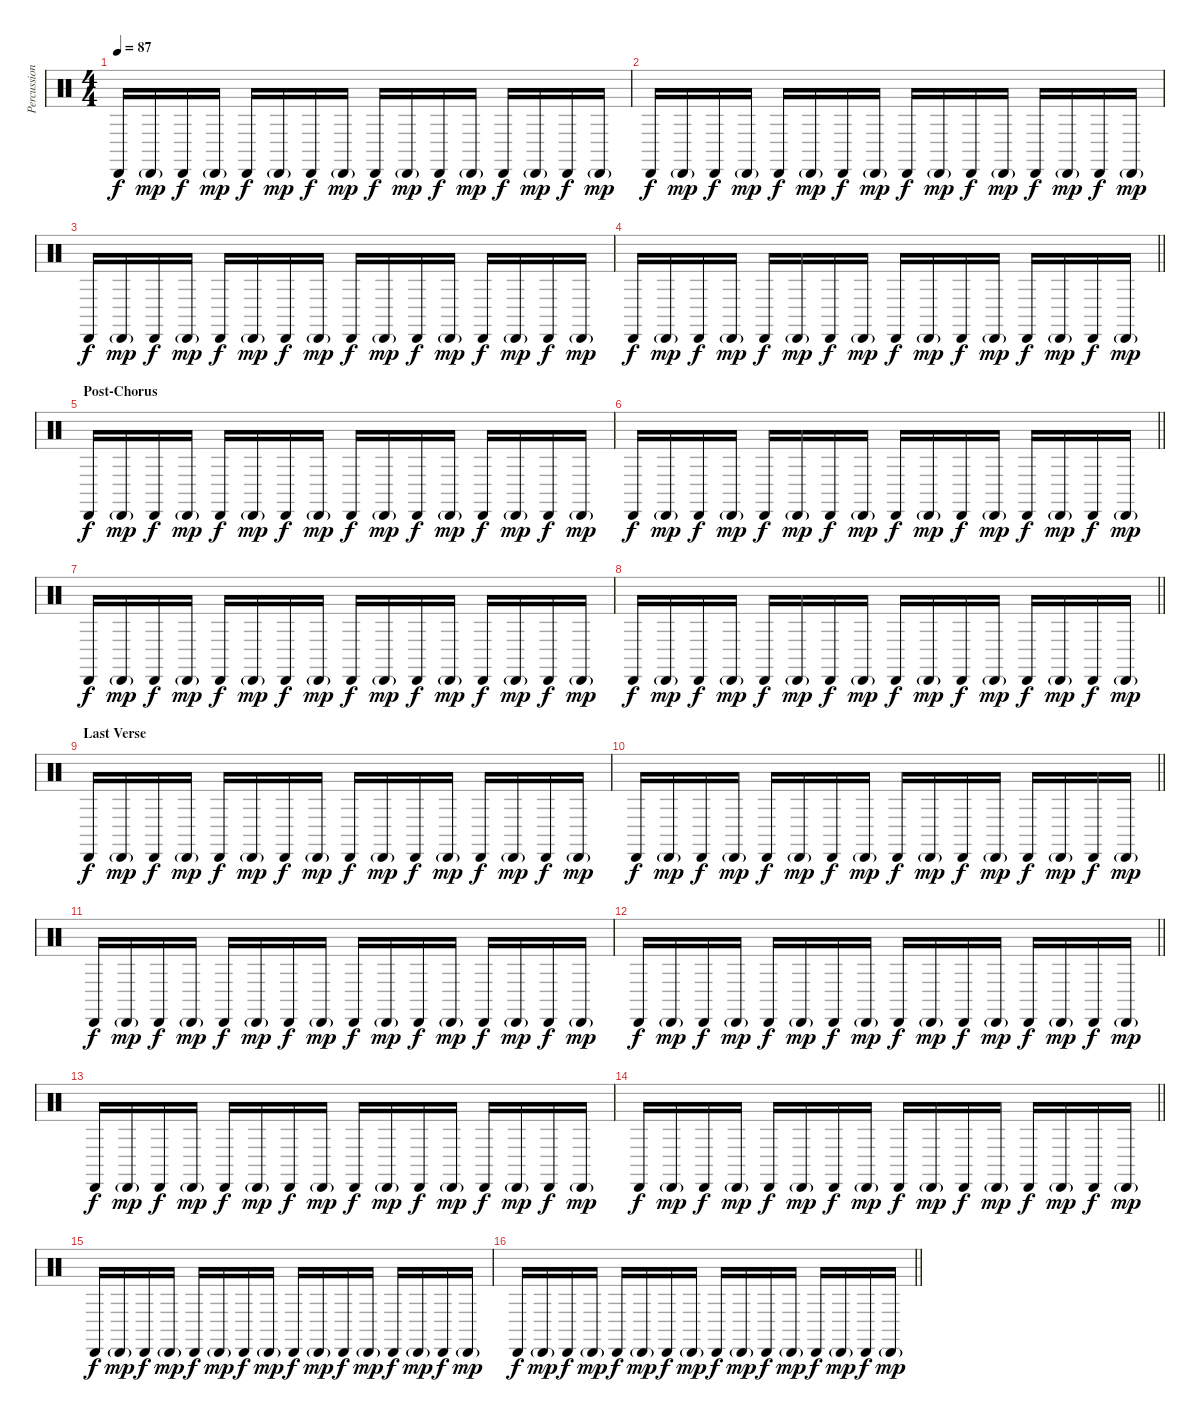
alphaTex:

\track ("Percussion" "Percussion") {instrument percussion}
\staff {score}
\articulation defaults
\ts (4 4)
\tempo 87
\clef neutral
\ks c "Cabasa (hit)".16{dy f} "Cabasa (hit)"{g}.16{dy mp} "Cabasa (hit)".16{dy f} "Cabasa (hit)"{g}.16{dy mp} "Cabasa (hit)".16{dy f} "Cabasa (hit)"{g}.16{dy mp} "Cabasa (hit)".16{dy f} "Cabasa (hit)"{g}.16{dy mp} "Cabasa (hit)".16{dy f} "Cabasa (hit)"{g}.16{dy mp} "Cabasa (hit)".16{dy f} "Cabasa (hit)"{g}.16{dy mp} "Cabasa (hit)".16{dy f} "Cabasa (hit)"{g}.16{dy mp} "Cabasa (hit)".16{dy f} "Cabasa (hit)"{g}.16{dy mp}
|
"Cabasa (hit)".16{dy f} "Cabasa (hit)"{g}.16{dy mp} "Cabasa (hit)".16{dy f} "Cabasa (hit)"{g}.16{dy mp} "Cabasa (hit)".16{dy f} "Cabasa (hit)"{g}.16{dy mp} "Cabasa (hit)".16{dy f} "Cabasa (hit)"{g}.16{dy mp} "Cabasa (hit)".16{dy f} "Cabasa (hit)"{g}.16{dy mp} "Cabasa (hit)".16{dy f} "Cabasa (hit)"{g}.16{dy mp} "Cabasa (hit)".16{dy f} "Cabasa (hit)"{g}.16{dy mp} "Cabasa (hit)".16{dy f} "Cabasa (hit)"{g}.16{dy mp} |
"Cabasa (hit)".16{dy f} "Cabasa (hit)"{g}.16{dy mp} "Cabasa (hit)".16{dy f} "Cabasa (hit)"{g}.16{dy mp} "Cabasa (hit)".16{dy f} "Cabasa (hit)"{g}.16{dy mp} "Cabasa (hit)".16{dy f} "Cabasa (hit)"{g}.16{dy mp} "Cabasa (hit)".16{dy f} "Cabasa (hit)"{g}.16{dy mp} "Cabasa (hit)".16{dy f} "Cabasa (hit)"{g}.16{dy mp} "Cabasa (hit)".16{dy f} "Cabasa (hit)"{g}.16{dy mp} "Cabasa (hit)".16{dy f} "Cabasa (hit)"{g}.16{dy mp} |
\barLineRight lightlight "Cabasa (hit)".16{dy f} "Cabasa (hit)"{g}.16{dy mp} "Cabasa (hit)".16{dy f} "Cabasa (hit)"{g}.16{dy mp} "Cabasa (hit)".16{dy f} "Cabasa (hit)"{g}.16{dy mp} "Cabasa (hit)".16{dy f} "Cabasa (hit)"{g}.16{dy mp} "Cabasa (hit)".16{dy f} "Cabasa (hit)"{g}.16{dy mp} "Cabasa (hit)".16{dy f} "Cabasa (hit)"{g}.16{dy mp} "Cabasa (hit)".16{dy f} "Cabasa (hit)"{g}.16{dy mp} "Cabasa (hit)".16{dy f} "Cabasa (hit)"{g}.16{dy mp}
|
\section ("" "Post-Chorus")
"Cabasa (hit)".16{dy f} "Cabasa (hit)"{g}.16{dy mp} "Cabasa (hit)".16{dy f} "Cabasa (hit)"{g}.16{dy mp} "Cabasa (hit)".16{dy f} "Cabasa (hit)"{g}.16{dy mp} "Cabasa (hit)".16{dy f} "Cabasa (hit)"{g}.16{dy mp} "Cabasa (hit)".16{dy f} "Cabasa (hit)"{g}.16{dy mp} "Cabasa (hit)".16{dy f} "Cabasa (hit)"{g}.16{dy mp} "Cabasa (hit)".16{dy f} "Cabasa (hit)"{g}.16{dy mp} "Cabasa (hit)".16{dy f} "Cabasa (hit)"{g}.16{dy mp} |
\barLineRight lightlight "Cabasa (hit)".16{dy f} "Cabasa (hit)"{g}.16{dy mp} "Cabasa (hit)".16{dy f} "Cabasa (hit)"{g}.16{dy mp} "Cabasa (hit)".16{dy f} "Cabasa (hit)"{g}.16{dy mp} "Cabasa (hit)".16{dy f} "Cabasa (hit)"{g}.16{dy mp} "Cabasa (hit)".16{dy f} "Cabasa (hit)"{g}.16{dy mp} "Cabasa (hit)".16{dy f} "Cabasa (hit)"{g}.16{dy mp} "Cabasa (hit)".16{dy f} "Cabasa (hit)"{g}.16{dy mp} "Cabasa (hit)".16{dy f} "Cabasa (hit)"{g}.16{dy mp}
|
"Cabasa (hit)".16{dy f} "Cabasa (hit)"{g}.16{dy mp} "Cabasa (hit)".16{dy f} "Cabasa (hit)"{g}.16{dy mp} "Cabasa (hit)".16{dy f} "Cabasa (hit)"{g}.16{dy mp} "Cabasa (hit)".16{dy f} "Cabasa (hit)"{g}.16{dy mp} "Cabasa (hit)".16{dy f} "Cabasa (hit)"{g}.16{dy mp} "Cabasa (hit)".16{dy f} "Cabasa (hit)"{g}.16{dy mp} "Cabasa (hit)".16{dy f} "Cabasa (hit)"{g}.16{dy mp} "Cabasa (hit)".16{dy f} "Cabasa (hit)"{g}.16{dy mp} |
\barLineRight lightlight "Cabasa (hit)".16{dy f} "Cabasa (hit)"{g}.16{dy mp} "Cabasa (hit)".16{dy f} "Cabasa (hit)"{g}.16{dy mp} "Cabasa (hit)".16{dy f} "Cabasa (hit)"{g}.16{dy mp} "Cabasa (hit)".16{dy f} "Cabasa (hit)"{g}.16{dy mp} "Cabasa (hit)".16{dy f} "Cabasa (hit)"{g}.16{dy mp} "Cabasa (hit)".16{dy f} "Cabasa (hit)"{g}.16{dy mp} "Cabasa (hit)".16{dy f} "Cabasa (hit)"{g}.16{dy mp} "Cabasa (hit)".16{dy f} "Cabasa (hit)"{g}.16{dy mp}
|
\section ("" "Last Verse")
"Cabasa (hit)".16{dy f} "Cabasa (hit)"{g}.16{dy mp} "Cabasa (hit)".16{dy f} "Cabasa (hit)"{g}.16{dy mp} "Cabasa (hit)".16{dy f} "Cabasa (hit)"{g}.16{dy mp} "Cabasa (hit)".16{dy f} "Cabasa (hit)"{g}.16{dy mp} "Cabasa (hit)".16{dy f} "Cabasa (hit)"{g}.16{dy mp} "Cabasa (hit)".16{dy f} "Cabasa (hit)"{g}.16{dy mp} "Cabasa (hit)".16{dy f} "Cabasa (hit)"{g}.16{dy mp} "Cabasa (hit)".16{dy f} "Cabasa (hit)"{g}.16{dy mp} |
\barLineRight lightlight "Cabasa (hit)".16{dy f} "Cabasa (hit)"{g}.16{dy mp} "Cabasa (hit)".16{dy f} "Cabasa (hit)"{g}.16{dy mp} "Cabasa (hit)".16{dy f} "Cabasa (hit)"{g}.16{dy mp} "Cabasa (hit)".16{dy f} "Cabasa (hit)"{g}.16{dy mp} "Cabasa (hit)".16{dy f} "Cabasa (hit)"{g}.16{dy mp} "Cabasa (hit)".16{dy f} "Cabasa (hit)"{g}.16{dy mp} "Cabasa (hit)".16{dy f} "Cabasa (hit)"{g}.16{dy mp} "Cabasa (hit)".16{dy f} "Cabasa (hit)"{g}.16{dy mp}
|
"Cabasa (hit)".16{dy f} "Cabasa (hit)"{g}.16{dy mp} "Cabasa (hit)".16{dy f} "Cabasa (hit)"{g}.16{dy mp} "Cabasa (hit)".16{dy f} "Cabasa (hit)"{g}.16{dy mp} "Cabasa (hit)".16{dy f} "Cabasa (hit)"{g}.16{dy mp} "Cabasa (hit)".16{dy f} "Cabasa (hit)"{g}.16{dy mp} "Cabasa (hit)".16{dy f} "Cabasa (hit)"{g}.16{dy mp} "Cabasa (hit)".16{dy f} "Cabasa (hit)"{g}.16{dy mp} "Cabasa (hit)".16{dy f} "Cabasa (hit)"{g}.16{dy mp} |
\barLineRight lightlight "Cabasa (hit)".16{dy f} "Cabasa (hit)"{g}.16{dy mp} "Cabasa (hit)".16{dy f} "Cabasa (hit)"{g}.16{dy mp} "Cabasa (hit)".16{dy f} "Cabasa (hit)"{g}.16{dy mp} "Cabasa (hit)".16{dy f} "Cabasa (hit)"{g}.16{dy mp} "Cabasa (hit)".16{dy f} "Cabasa (hit)"{g}.16{dy mp} "Cabasa (hit)".16{dy f} "Cabasa (hit)"{g}.16{dy mp} "Cabasa (hit)".16{dy f} "Cabasa (hit)"{g}.16{dy mp} "Cabasa (hit)".16{dy f} "Cabasa (hit)"{g}.16{dy mp}
|
"Cabasa (hit)".16{dy f} "Cabasa (hit)"{g}.16{dy mp} "Cabasa (hit)".16{dy f} "Cabasa (hit)"{g}.16{dy mp} "Cabasa (hit)".16{dy f} "Cabasa (hit)"{g}.16{dy mp} "Cabasa (hit)".16{dy f} "Cabasa (hit)"{g}.16{dy mp} "Cabasa (hit)".16{dy f} "Cabasa (hit)"{g}.16{dy mp} "Cabasa (hit)".16{dy f} "Cabasa (hit)"{g}.16{dy mp} "Cabasa (hit)".16{dy f} "Cabasa (hit)"{g}.16{dy mp} "Cabasa (hit)".16{dy f} "Cabasa (hit)"{g}.16{dy mp} |
\barLineRight lightlight "Cabasa (hit)".16{dy f} "Cabasa (hit)"{g}.16{dy mp} "Cabasa (hit)".16{dy f} "Cabasa (hit)"{g}.16{dy mp} "Cabasa (hit)".16{dy f} "Cabasa (hit)"{g}.16{dy mp} "Cabasa (hit)".16{dy f} "Cabasa (hit)"{g}.16{dy mp} "Cabasa (hit)".16{dy f} "Cabasa (hit)"{g}.16{dy mp} "Cabasa (hit)".16{dy f} "Cabasa (hit)"{g}.16{dy mp} "Cabasa (hit)".16{dy f} "Cabasa (hit)"{g}.16{dy mp} "Cabasa (hit)".16{dy f} "Cabasa (hit)"{g}.16{dy mp}
|
"Cabasa (hit)".16{dy f} "Cabasa (hit)"{g}.16{dy mp} "Cabasa (hit)".16{dy f} "Cabasa (hit)"{g}.16{dy mp} "Cabasa (hit)".16{dy f} "Cabasa (hit)"{g}.16{dy mp} "Cabasa (hit)".16{dy f} "Cabasa (hit)"{g}.16{dy mp} "Cabasa (hit)".16{dy f} "Cabasa (hit)"{g}.16{dy mp} "Cabasa (hit)".16{dy f} "Cabasa (hit)"{g}.16{dy mp} "Cabasa (hit)".16{dy f} "Cabasa (hit)"{g}.16{dy mp} "Cabasa (hit)".16{dy f} "Cabasa (hit)"{g}.16{dy mp} |
\barLineRight lightlight "Cabasa (hit)".16{dy f} "Cabasa (hit)"{g}.16{dy mp} "Cabasa (hit)".16{dy f} "Cabasa (hit)"{g}.16{dy mp} "Cabasa (hit)".16{dy f} "Cabasa (hit)"{g}.16{dy mp} "Cabasa (hit)".16{dy f} "Cabasa (hit)"{g}.16{dy mp} "Cabasa (hit)".16{dy f} "Cabasa (hit)"{g}.16{dy mp} "Cabasa (hit)".16{dy f} "Cabasa (hit)"{g}.16{dy mp} "Cabasa (hit)".16{dy f} "Cabasa (hit)"{g}.16{dy mp} "Cabasa (hit)".16{dy f} "Cabasa (hit)"{g}.16{dy mp}
